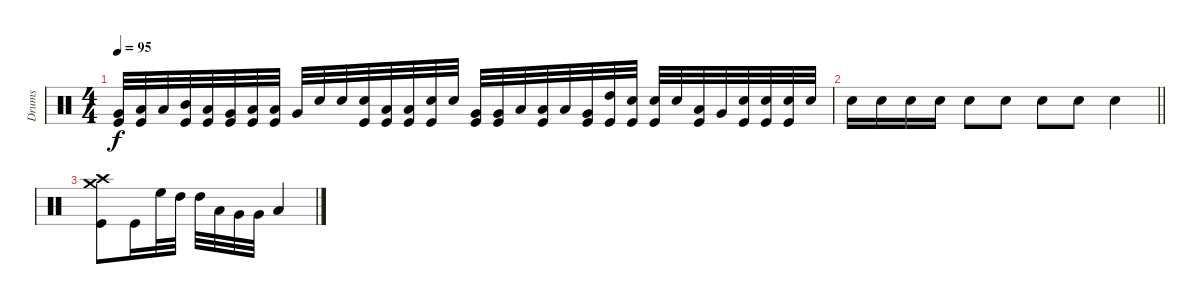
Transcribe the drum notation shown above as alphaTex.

\track ("Drums" "Drums") {instrument percussion}
\staff {score}
\articulation defaults
\ts (4 4)
\tempo 95
\clef neutral
\ks c
("Very Low Tom (hit)" "Kick (hit)").32{dy f} ("Low Floor Tom (hit)" "Kick (hit)").32 "Low Tom (hit)".32 ("Mid Tom (hit)" "Kick (hit)").32 ("Low Floor Tom (hit)" "Kick (hit)").32 ("Very Low Tom (hit)" "Kick (hit)").32 ("Low Tom (hit)" "Kick (hit)").32 ("Low Floor Tom (hit)" "Kick (hit)").32 "Very Low Tom (hit)".32 "Snare (hit) 2".32 "Snare (hit) 2".32 ("Snare (hit) 2" "Kick (hit)").32 ("Low Tom (hit)" "Kick (hit)").32 ("Low Floor Tom (hit)" "Kick (hit)").32 ("Snare (hit) 2" "Kick (hit)").32 "Snare (hit) 2".32 ("Very Low Tom (hit)" "Kick (hit)").32 ("Very Low Tom (hit)" "Kick (hit)").32 "Low Floor Tom (hit)".32 ("Low Tom (hit)" "Kick (hit)").32 "Low Floor Tom (hit)".32 ("Very Low Tom (hit)" "Kick (hit)").32 ("High Tom (hit)" "Kick (hit)").32 ("Snare (hit) 2" "Kick (hit)").32 ("Snare (hit) 2" "Kick (hit)").32 "Snare (hit) 2".32 ("Low Tom (hit)" "Kick (hit)").32 "Very Low Tom (hit)".32 ("Snare (hit) 2" "Kick (hit)").32 ("Snare (hit) 2" "Kick (hit)").32 ("Snare (hit) 2" "Kick (hit)").32 "Snare (hit) 2".32 |
\barLineRight lightlight "Snare (hit) 2".16 "Snare (hit) 2".16 "Snare (hit) 2".16 "Snare (hit) 2".16 "Snare (hit) 2".8 "Snare (hit) 2".8 "Snare (hit) 2".8 "Snare (hit) 2".8 "Snare (hit) 2".4
|
("Crash high (hit)" "Crash medium (hit)" "Kick (hit)").8 "Kick (hit)".16 "High Floor Tom (hit)".32 "High Tom (hit)".32 "High Tom (hit)".32 "Low Tom (hit)".32 "Very Low Tom (hit)".32 "Very Low Tom (hit)".32 "Low Floor Tom (hit)".4
